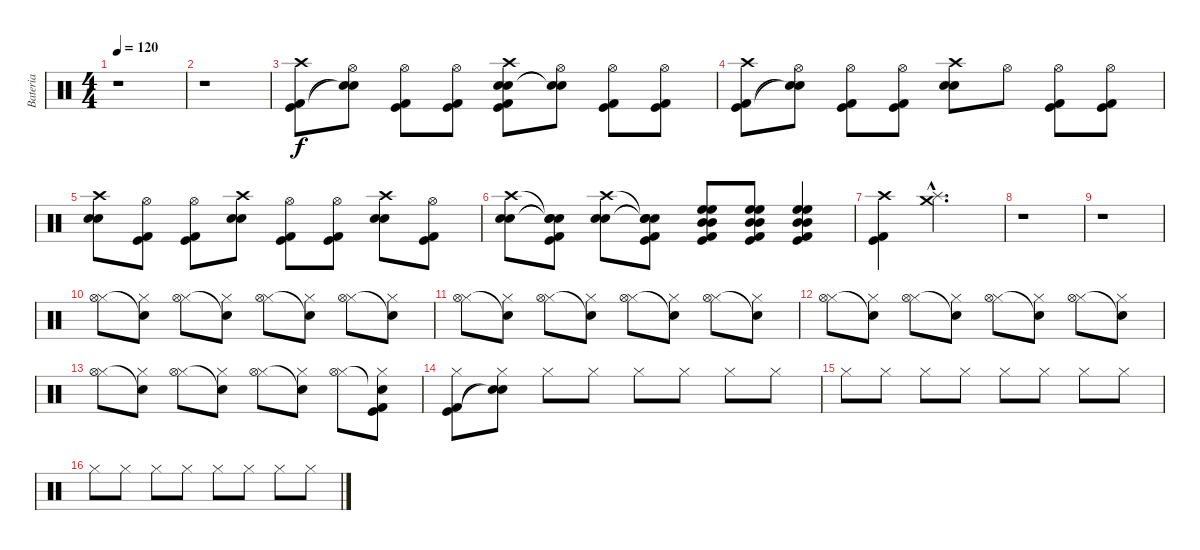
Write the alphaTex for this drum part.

\track ("Bateria" "Bateria") {instrument percussion}
\staff {score}
\articulation defaults
\ts (4 4)
\tempo 120
\clef neutral
\ks c
r.1{dy f} |
r.1 |
("Crash high (hit)" "Kick (hit)" "Kick (hit) 2").8 ("Hi-Hat (open)" "Snare (hit)"{t} "Snare (hit)"{t}).8 ("Hi-Hat (open)" "Kick (hit)" "Kick (hit) 2").8 ("Hi-Hat (open)" "Kick (hit)" "Kick (hit) 2").8 ("Crash high (hit)" "Electric Snare (hit)" "Snare (hit) 2" "Kick (hit)" "Kick (hit) 2").8 ("Hi-Hat (open)" "Snare (hit)"{t} "Snare (hit)"{t}).8 ("Hi-Hat (open)" "Kick (hit) 2" "Kick (hit)").8 ("Hi-Hat (open)" "Kick (hit) 2" "Kick (hit)").8 |
("Crash high (hit)" "Kick (hit) 2" "Kick (hit)").8 ("Hi-Hat (open)" "Snare (hit)"{t} "Snare (hit)"{t}).8 ("Hi-Hat (open)" "Kick (hit)" "Kick (hit) 2").8 ("Hi-Hat (open)" "Kick (hit)" "Kick (hit) 2").8 ("Crash high (hit)" "Electric Snare (hit)" "Snare (hit) 2").8 "Hi-Hat (open)".8 ("Hi-Hat (open)" "Kick (hit)" "Kick (hit) 2").8 ("Hi-Hat (open)" "Kick (hit)" "Kick (hit) 2").8 |
("Crash high (hit)" "Electric Snare (hit)" "Snare (hit) 2").8 ("Hi-Hat (open)" "Kick (hit)" "Kick (hit) 2").8 ("Hi-Hat (open)" "Kick (hit)" "Kick (hit) 2").8 ("Crash high (hit)" "Electric Snare (hit)" "Snare (hit) 2").8 ("Hi-Hat (open)" "Kick (hit)" "Kick (hit) 2").8 ("Hi-Hat (open)" "Kick (hit)" "Kick (hit) 2").8 ("Crash high (hit)" "Electric Snare (hit)" "Snare (hit) 2").8 ("Hi-Hat (open)" "Kick (hit)" "Kick (hit) 2").8 |
("Crash high (hit)" "Electric Snare (hit)" "Snare (hit) 2").8 ("Snare (hit)"{t} "Snare (hit)"{t} "Snare (hit)"{t} "Kick (hit)" "Kick (hit) 2").8 ("Crash high (hit)" "Electric Snare (hit)" "Snare (hit) 2").8 ("Snare (hit)"{t} "Snare (hit)"{t} "Snare (hit)"{t} "Kick (hit)" "Kick (hit) 2").8 ("High Floor Tom (hit)" "High Floor Tom (hit)" "Mid Tom (hit)" "Mid Tom (hit)" "Kick (hit)" "Kick (hit) 2").8 ("High Floor Tom (hit)" "High Floor Tom (hit)" "Mid Tom (hit)" "Mid Tom (hit)" "Kick (hit)" "Kick (hit) 2").8 ("High Floor Tom (hit)" "High Floor Tom (hit)" "Mid Tom (hit)" "Mid Tom (hit)" "Kick (hit)" "Kick (hit) 2").4 |
("Crash high (hit)" "Kick (hit)" "Kick (hit) 2").4 ("Splash (hit)"{hac} "Crash medium (hit)"{hac}).2{d} |
r.1 |
r.1 |
("Hi-Hat (closed)" "Hi-Hat (open)").8 ("Hi-Hat (closed)" "Snare (hit)"{t}).8 ("Hi-Hat (closed)" "Hi-Hat (open)").8 ("Hi-Hat (closed)" "Snare (hit)"{t}).8 ("Hi-Hat (closed)" "Hi-Hat (open)").8 ("Hi-Hat (closed)" "Snare (hit)"{t}).8 ("Hi-Hat (closed)" "Hi-Hat (open)").8 ("Hi-Hat (closed)" "Snare (hit)"{t}).8 |
("Hi-Hat (closed)" "Hi-Hat (open)").8 ("Hi-Hat (closed)" "Snare (hit)"{t}).8 ("Hi-Hat (closed)" "Hi-Hat (open)").8 ("Hi-Hat (closed)" "Snare (hit)"{t}).8 ("Hi-Hat (closed)" "Hi-Hat (open)").8 ("Hi-Hat (closed)" "Snare (hit)"{t}).8 ("Hi-Hat (closed)" "Hi-Hat (open)").8 ("Hi-Hat (closed)" "Snare (hit)"{t}).8 |
("Hi-Hat (closed)" "Hi-Hat (open)").8 ("Hi-Hat (closed)" "Snare (hit)"{t}).8 ("Hi-Hat (closed)" "Hi-Hat (open)").8 ("Hi-Hat (closed)" "Snare (hit)"{t}).8 ("Hi-Hat (closed)" "Hi-Hat (open)").8 ("Hi-Hat (closed)" "Snare (hit)"{t}).8 ("Hi-Hat (closed)" "Hi-Hat (open)").8 ("Hi-Hat (closed)" "Snare (hit)"{t}).8 |
("Hi-Hat (closed)" "Hi-Hat (open)").8 ("Hi-Hat (closed)" "Snare (hit)"{t}).8 ("Hi-Hat (closed)" "Hi-Hat (open)").8 ("Hi-Hat (closed)" "Snare (hit)"{t}).8 ("Hi-Hat (closed)" "Hi-Hat (open)").8 ("Hi-Hat (closed)" "Snare (hit)"{t}).8 ("Hi-Hat (closed)" "Hi-Hat (open)").8 ("Hi-Hat (closed)" "Snare (hit)"{t} "Kick (hit) 2" "Kick (hit)").8 |
("Hi-Hat (closed)" "Kick (hit)" "Kick (hit) 2").8 ("Hi-Hat (closed)" "Snare (hit)"{t} "Snare (hit)"{t}).8 "Hi-Hat (closed)".8 "Hi-Hat (closed)".8 "Hi-Hat (closed)".8 "Hi-Hat (closed)".8 "Hi-Hat (closed)".8 "Hi-Hat (closed)".8 |
"Hi-Hat (closed)".8 "Hi-Hat (closed)".8 "Hi-Hat (closed)".8 "Hi-Hat (closed)".8 "Hi-Hat (closed)".8 "Hi-Hat (closed)".8 "Hi-Hat (closed)".8 "Hi-Hat (closed)".8 |
"Hi-Hat (closed)".8 "Hi-Hat (closed)".8 "Hi-Hat (closed)".8 "Hi-Hat (closed)".8 "Hi-Hat (closed)".8 "Hi-Hat (closed)".8 "Hi-Hat (closed)".8 "Hi-Hat (closed)".8
